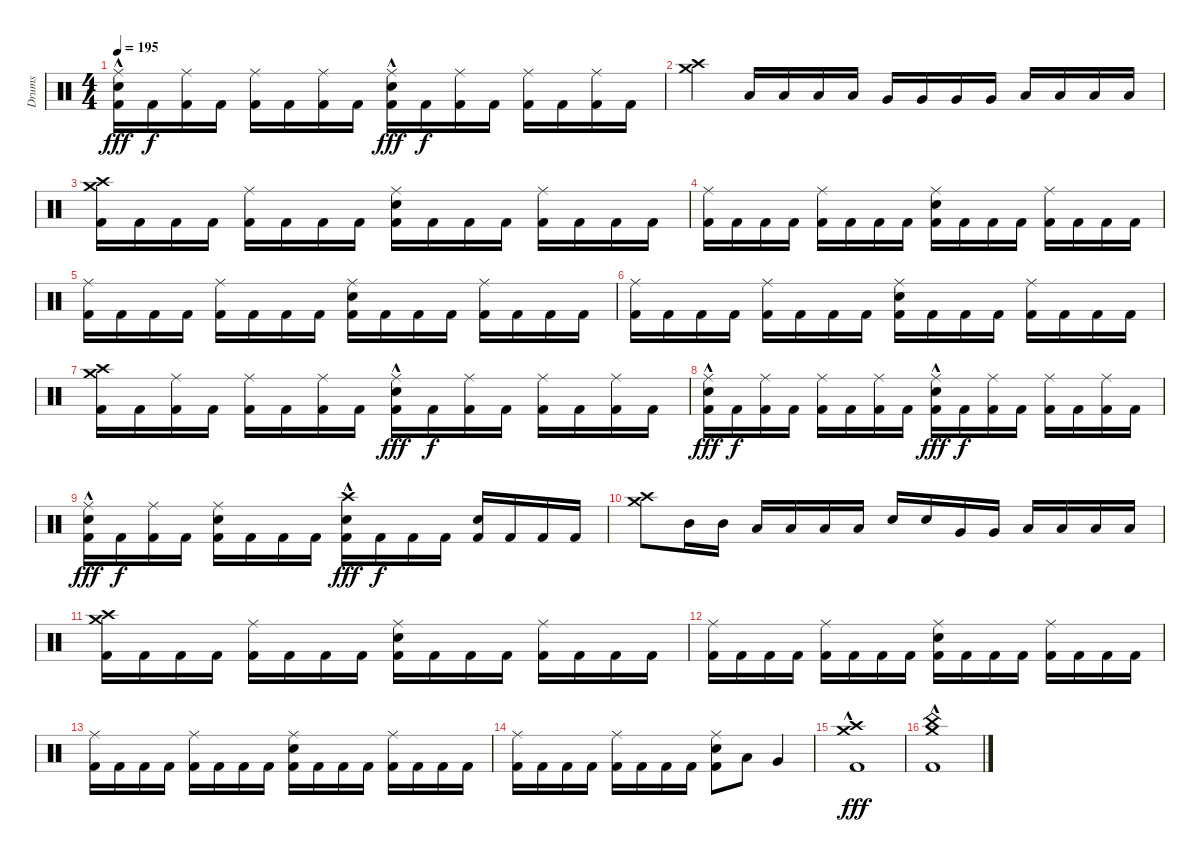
\track ("Drums" "Drums") {instrument percussion}
\staff {score}
\articulation defaults
\ts (4 4)
\tempo 195
\clef neutral
\ks c
("Ride (middle)" "Kick (hit) 2" "Electric Snare (hit)"{hac}).16{dy fff} "Kick (hit) 2".16{dy f} ("Ride (middle)" "Kick (hit) 2").16 "Kick (hit) 2".16 ("Ride (middle)" "Kick (hit) 2").16 "Kick (hit) 2".16 ("Ride (middle)" "Kick (hit) 2").16 "Kick (hit) 2".16 ("Ride (middle)" "Kick (hit) 2" "Electric Snare (hit)"{hac}).16{dy fff} "Kick (hit) 2".16{dy f} ("Ride (middle)" "Kick (hit) 2").16 "Kick (hit) 2".16 ("Ride (middle)" "Kick (hit) 2").16 "Kick (hit) 2".16 ("Ride (middle)" "Kick (hit) 2").16 "Kick (hit) 2".16 |
("Crash high (hit)" "Crash medium (hit)").4 "Low Tom (hit)".16 "Low Tom (hit)".16 "Low Tom (hit)".16 "Low Tom (hit)".16 "Very Low Tom (hit)".16 "Very Low Tom (hit)".16 "Very Low Tom (hit)".16 "Very Low Tom (hit)".16 "Low Floor Tom (hit)".16 "Low Floor Tom (hit)".16 "Low Floor Tom (hit)".16 "Low Floor Tom (hit)".16 |
("Crash high (hit)" "Kick (hit) 2" "Crash medium (hit)").16 "Kick (hit) 2".16 "Kick (hit) 2".16 "Kick (hit) 2".16 ("Ride (middle)" "Kick (hit) 2").16 "Kick (hit) 2".16 "Kick (hit) 2".16 "Kick (hit) 2".16 ("Ride (middle)" "Kick (hit) 2" "Electric Snare (hit)").16 "Kick (hit) 2".16 "Kick (hit) 2".16 "Kick (hit) 2".16 ("Ride (middle)" "Kick (hit) 2").16 "Kick (hit) 2".16 "Kick (hit) 2".16 "Kick (hit) 2".16 |
("Ride (middle)" "Kick (hit) 2").16 "Kick (hit) 2".16 "Kick (hit) 2".16 "Kick (hit) 2".16 ("Ride (middle)" "Kick (hit) 2").16 "Kick (hit) 2".16 "Kick (hit) 2".16 "Kick (hit) 2".16 ("Ride (middle)" "Kick (hit) 2" "Electric Snare (hit)").16 "Kick (hit) 2".16 "Kick (hit) 2".16 "Kick (hit) 2".16 ("Ride (middle)" "Kick (hit) 2").16 "Kick (hit) 2".16 "Kick (hit) 2".16 "Kick (hit) 2".16 |
("Ride (middle)" "Kick (hit) 2").16 "Kick (hit) 2".16 "Kick (hit) 2".16 "Kick (hit) 2".16 ("Ride (middle)" "Kick (hit) 2").16 "Kick (hit) 2".16 "Kick (hit) 2".16 "Kick (hit) 2".16 ("Ride (middle)" "Kick (hit) 2" "Electric Snare (hit)").16 "Kick (hit) 2".16 "Kick (hit) 2".16 "Kick (hit) 2".16 ("Ride (middle)" "Kick (hit) 2").16 "Kick (hit) 2".16 "Kick (hit) 2".16 "Kick (hit) 2".16 |
("Ride (middle)" "Kick (hit) 2").16 "Kick (hit) 2".16 "Kick (hit) 2".16 "Kick (hit) 2".16 ("Ride (middle)" "Kick (hit) 2").16 "Kick (hit) 2".16 "Kick (hit) 2".16 "Kick (hit) 2".16 ("Ride (middle)" "Kick (hit) 2" "Electric Snare (hit)").16 "Kick (hit) 2".16 "Kick (hit) 2".16 "Kick (hit) 2".16 ("Ride (middle)" "Kick (hit) 2").16 "Kick (hit) 2".16 "Kick (hit) 2".16 "Kick (hit) 2".16 |
("Crash high (hit)" "Kick (hit) 2" "Crash medium (hit)").16 "Kick (hit) 2".16 ("Ride (middle)" "Kick (hit) 2").16 "Kick (hit) 2".16 ("Ride (middle)" "Kick (hit) 2").16 "Kick (hit) 2".16 ("Ride (middle)" "Kick (hit) 2").16 "Kick (hit) 2".16 ("Ride (middle)" "Kick (hit) 2" "Electric Snare (hit)"{hac}).16{dy fff} "Kick (hit) 2".16{dy f} ("Ride (middle)" "Kick (hit) 2").16 "Kick (hit) 2".16 ("Ride (middle)" "Kick (hit) 2").16 "Kick (hit) 2".16 ("Ride (middle)" "Kick (hit) 2").16 "Kick (hit) 2".16 |
("Ride (middle)" "Kick (hit) 2" "Electric Snare (hit)"{hac}).16{dy fff} "Kick (hit) 2".16{dy f} ("Ride (middle)" "Kick (hit) 2").16 "Kick (hit) 2".16 ("Ride (middle)" "Kick (hit) 2").16 "Kick (hit) 2".16 ("Ride (middle)" "Kick (hit) 2").16 "Kick (hit) 2".16 ("Ride (middle)" "Kick (hit) 2" "Electric Snare (hit)"{hac}).16{dy fff} "Kick (hit) 2".16{dy f} ("Ride (middle)" "Kick (hit) 2").16 "Kick (hit) 2".16 ("Ride (middle)" "Kick (hit) 2").16 "Kick (hit) 2".16 ("Ride (middle)" "Kick (hit) 2").16 "Kick (hit) 2".16 |
("Ride (middle)" "Kick (hit) 2" "Electric Snare (hit)"{hac}).16{dy fff} "Kick (hit) 2".16{dy f} ("Ride (middle)" "Kick (hit) 2").16 "Kick (hit) 2".16 ("Ride (middle)" "Kick (hit) 2" "Electric Snare (hit)").16 "Kick (hit) 2".16 "Kick (hit) 2".16 "Kick (hit) 2".16 ("Crash high (hit)" "Kick (hit) 2" "Electric Snare (hit)"{hac}).16{dy fff} "Kick (hit) 2".16{dy f} "Kick (hit) 2".16 "Kick (hit) 2".16 ("Kick (hit) 2" "Electric Snare (hit)").16 "Kick (hit) 2".16 "Kick (hit) 2".16 "Kick (hit) 2".16 |
("Crash high (hit)" "Crash medium (hit)").8 "Mid Tom (hit)".16 "Mid Tom (hit)".16 "Low Tom (hit)".16 "Low Tom (hit)".16 "Low Tom (hit)".16 "Low Tom (hit)".16 "Electric Snare (hit)".16 "Electric Snare (hit)".16 "Very Low Tom (hit)".16 "Very Low Tom (hit)".16 "Low Floor Tom (hit)".16 "Low Floor Tom (hit)".16 "Low Floor Tom (hit)".16 "Low Floor Tom (hit)".16 |
("Crash high (hit)" "Kick (hit) 2" "Crash medium (hit)").16 "Kick (hit) 2".16 "Kick (hit) 2".16 "Kick (hit) 2".16 ("Ride (middle)" "Kick (hit) 2").16 "Kick (hit) 2".16 "Kick (hit) 2".16 "Kick (hit) 2".16 ("Ride (middle)" "Kick (hit) 2" "Electric Snare (hit)").16 "Kick (hit) 2".16 "Kick (hit) 2".16 "Kick (hit) 2".16 ("Ride (middle)" "Kick (hit) 2").16 "Kick (hit) 2".16 "Kick (hit) 2".16 "Kick (hit) 2".16 |
("Ride (middle)" "Kick (hit) 2").16 "Kick (hit) 2".16 "Kick (hit) 2".16 "Kick (hit) 2".16 ("Ride (middle)" "Kick (hit) 2").16 "Kick (hit) 2".16 "Kick (hit) 2".16 "Kick (hit) 2".16 ("Ride (middle)" "Kick (hit) 2" "Electric Snare (hit)").16 "Kick (hit) 2".16 "Kick (hit) 2".16 "Kick (hit) 2".16 ("Ride (middle)" "Kick (hit) 2").16 "Kick (hit) 2".16 "Kick (hit) 2".16 "Kick (hit) 2".16 |
("Ride (middle)" "Kick (hit) 2").16 "Kick (hit) 2".16 "Kick (hit) 2".16 "Kick (hit) 2".16 ("Ride (middle)" "Kick (hit) 2").16 "Kick (hit) 2".16 "Kick (hit) 2".16 "Kick (hit) 2".16 ("Ride (middle)" "Kick (hit) 2" "Electric Snare (hit)").16 "Kick (hit) 2".16 "Kick (hit) 2".16 "Kick (hit) 2".16 ("Ride (middle)" "Kick (hit) 2").16 "Kick (hit) 2".16 "Kick (hit) 2".16 "Kick (hit) 2".16 |
("Ride (middle)" "Kick (hit) 2").16 "Kick (hit) 2".16 "Kick (hit) 2".16 "Kick (hit) 2".16 ("Ride (middle)" "Kick (hit) 2").16 "Kick (hit) 2".16 "Kick (hit) 2".16 "Kick (hit) 2".16 ("Ride (middle)" "Kick (hit) 2" "Electric Snare (hit)").8 "Low Tom (hit)".8 "Very Low Tom (hit)".4 |
("Crash high (hit)" "Crash medium (hit)" "Kick (hit) 2"{hac}).1{dy fff} |
("Crash medium (hit)" "China (hit)" "Kick (hit) 2"{hac}).1
